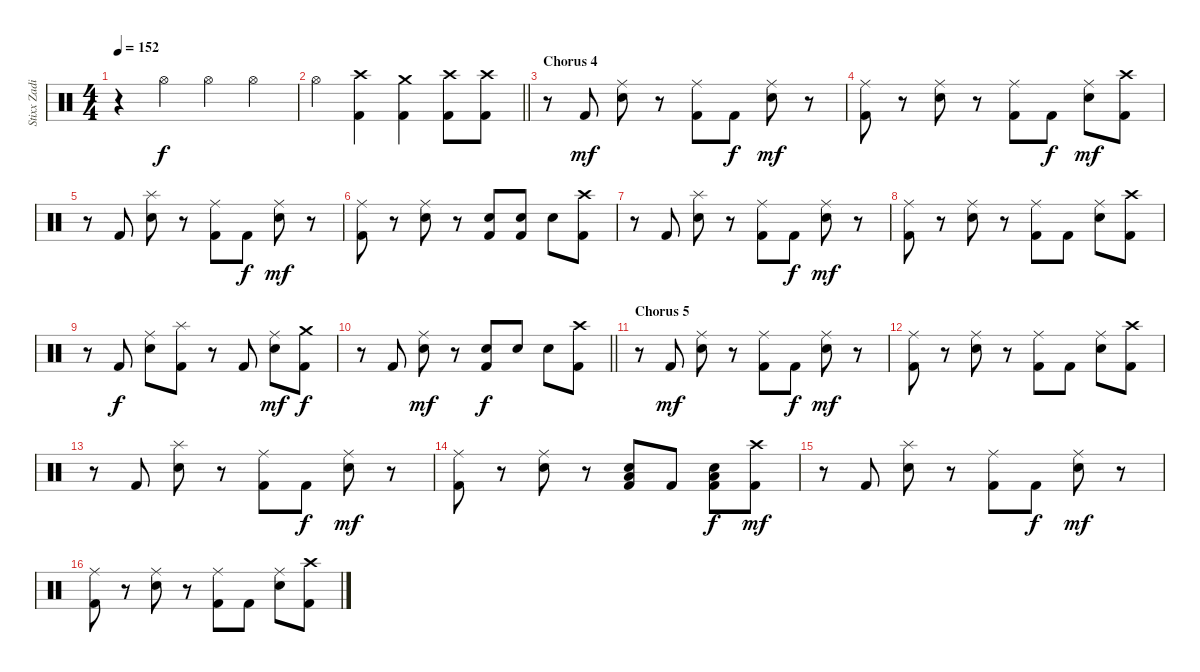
\track ("Stixx Zadinia" "Stixx Zadi") {instrument percussion}
\staff {score}
\articulation defaults
\ts (4 4)
\tempo 152
\clef neutral
\ks c
r.4{dy f} "Hi-Hat (open)".4 "Hi-Hat (open)".4 "Hi-Hat (open)".4 |
\barLineRight lightlight "Hi-Hat (open)".4
("Crash high (hit)" "Kick (hit) 2").4 ("Crash medium (hit)" "Kick (hit) 2").4 ("Crash high (hit)" "Kick (hit) 2").8 ("Crash high (hit)" "Kick (hit) 2").8 |
\section ("" "Chorus 4")
r.8 "Kick (hit) 2".8{dy mf} ("Ride (middle)" "Snare (hit) 2").8 r.8 ("Ride (middle)" "Kick (hit) 2").8 "Kick (hit) 2".8{dy f} ("Ride (middle)" "Snare (hit) 2").8{dy mf} r.8 |
("Ride (middle)" "Kick (hit) 2").8 r.8 ("Ride (middle)" "Snare (hit) 2").8 r.8 ("Ride (middle)" "Kick (hit) 2").8 "Kick (hit) 2".8{dy f} ("Ride (middle)" "Snare (hit) 2").8{dy mf} ("Crash high (hit)" "Kick (hit) 2").8 |
r.8 "Kick (hit) 2".8 ("Splash (hit)" "Snare (hit) 2").8 r.8 ("Ride (middle)" "Kick (hit) 2").8 "Kick (hit) 2".8{dy f} ("Ride (middle)" "Snare (hit) 2").8{dy mf} r.8 |
("Ride (middle)" "Kick (hit) 2").8 r.8 ("Ride (middle)" "Snare (hit) 2").8 r.8 ("Snare (hit) 2" "Kick (hit) 2").8 ("Snare (hit) 2" "Kick (hit) 2").8 "Snare (hit) 2".8 ("Crash high (hit)" "Kick (hit) 2").8 |
r.8 "Kick (hit) 2".8 ("Splash (hit)" "Snare (hit) 2").8 r.8 ("Ride (middle)" "Kick (hit) 2").8 "Kick (hit) 2".8{dy f} ("Ride (middle)" "Snare (hit) 2").8{dy mf} r.8 |
("Ride (middle)" "Kick (hit) 2").8 r.8 ("Ride (middle)" "Snare (hit) 2").8 r.8 ("Ride (middle)" "Kick (hit) 2").8 "Kick (hit) 2".8 ("Ride (middle)" "Snare (hit) 2").8 ("Crash high (hit)" "Kick (hit) 2").8 |
r.8 "Kick (hit) 2".8{dy f} ("Ride (middle)" "Snare (hit) 2").8 ("Splash (hit)" "Kick (hit) 2").8 r.8 "Kick (hit) 2".8 ("Ride (middle)" "Snare (hit) 2").8{dy mf} ("Crash medium (hit)" "Kick (hit) 2").8{dy f} |
\barLineRight lightlight
r.8 "Kick (hit) 2".8 ("Ride (middle)" "Snare (hit) 2").8{dy mf} r.8 ("Snare (hit) 2" "Kick (hit) 2").8{dy f} "Snare (hit) 2".8 "Snare (hit) 2".8 ("Crash high (hit)" "Kick (hit) 2").8 |
\section ("" "Chorus 5")
r.8 "Kick (hit) 2".8{dy mf} ("Ride (middle)" "Snare (hit) 2").8 r.8 ("Ride (middle)" "Kick (hit) 2").8 "Kick (hit) 2".8{dy f} ("Ride (middle)" "Snare (hit) 2").8{dy mf} r.8 |
("Ride (middle)" "Kick (hit) 2").8 r.8 ("Ride (middle)" "Snare (hit) 2").8 r.8 ("Ride (middle)" "Kick (hit) 2").8 "Kick (hit) 2".8 ("Ride (middle)" "Snare (hit) 2").8 ("Crash high (hit)" "Kick (hit) 2").8 |
r.8 "Kick (hit) 2".8 ("Splash (hit)" "Snare (hit) 2").8 r.8 ("Ride (middle)" "Kick (hit) 2").8 "Kick (hit) 2".8{dy f} ("Ride (middle)" "Snare (hit) 2").8{dy mf} r.8 |
("Ride (middle)" "Kick (hit) 2").8 r.8 ("Ride (middle)" "Snare (hit) 2").8 r.8 ("Low Floor Tom (hit)" "Snare (hit) 2" "Kick (hit) 2").8 "Kick (hit) 2".8 ("Low Floor Tom (hit)" "Snare (hit) 2" "Kick (hit) 2").8{dy f} ("Crash high (hit)" "Kick (hit) 2").8{dy mf} |
r.8 "Kick (hit) 2".8 ("Splash (hit)" "Snare (hit) 2").8 r.8 ("Ride (middle)" "Kick (hit) 2").8 "Kick (hit) 2".8{dy f} ("Ride (middle)" "Snare (hit) 2").8{dy mf} r.8 |
("Ride (middle)" "Kick (hit) 2").8 r.8 ("Ride (middle)" "Snare (hit) 2").8 r.8 ("Ride (middle)" "Kick (hit) 2").8 "Kick (hit) 2".8 ("Ride (middle)" "Snare (hit) 2").8 ("Crash high (hit)" "Kick (hit) 2").8
